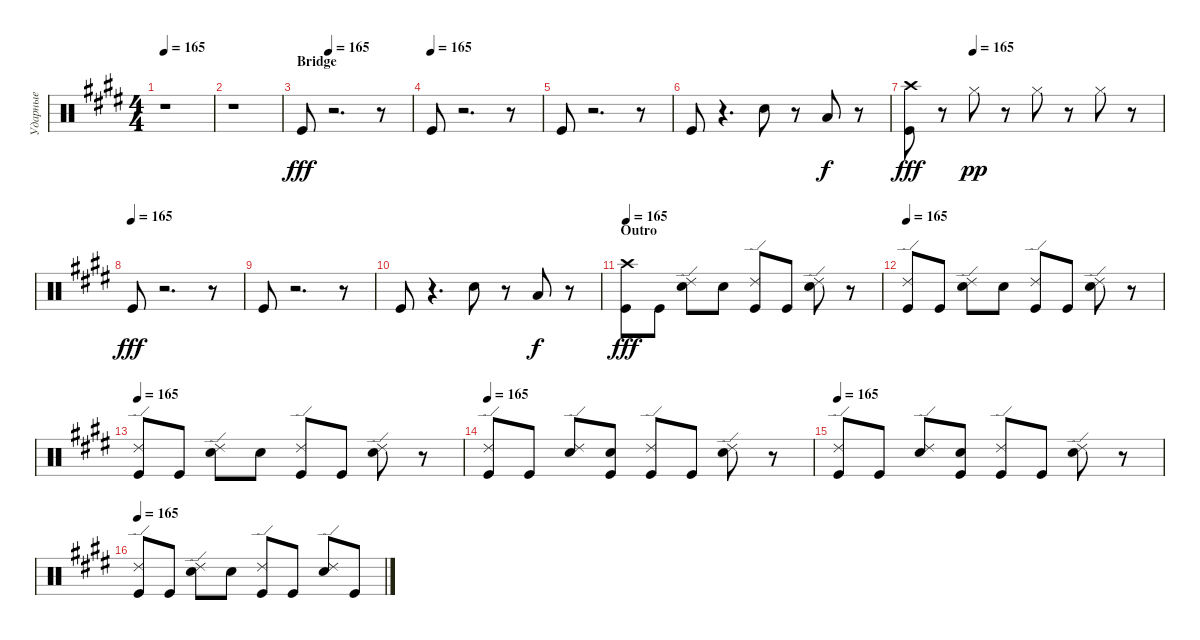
\track ("Ударные" "Ударные") {instrument percussion}
\staff {score}
\articulation defaults
\ts (4 4)
\tempo 165
\clef neutral
\ks e
r.1{dy fff} |
r.1 |
\section ("" "Bridge")
\tempo (165 0.25)
"Kick (hit)".8 r.2{d} r.8 |
\tempo (165)
"Kick (hit)".8 r.2{d} r.8 |
"Kick (hit)".8 r.2{d} r.8 |
"Kick (hit)".8 r.4{d} "Snare (hit) 2".8 r.8 "Low Tom (hit)".8{dy f} r.8 |
\tempo (165 0.25)
("Crash high (hit)" "Kick (hit)").8{dy fff} r.8 "Hi-Hat (closed)".8{dy pp} r.8 "Hi-Hat (closed)".8 r.8 "Hi-Hat (closed)".8 r.8 |
\tempo (165)
"Kick (hit)".8{dy fff} r.2{d} r.8 |
"Kick (hit)".8 r.2{d} r.8 |
"Kick (hit)".8 r.4{d} "Snare (hit) 2".8 r.8 "Low Tom (hit)".8{dy f} r.8 |
\section ("" "Outro")
\tempo 165
("Crash high (hit)" "Kick (hit)").8{dy fff} "Kick (hit)".8 ("Ride (edge) 2" "Snare (hit) 2").8 "Snare (hit) 2".8 ("Ride (edge) 2" "Kick (hit)").8 "Kick (hit)".8 ("Ride (edge) 2" "Snare (hit) 2").8 r.8 |
\tempo 165
("Ride (edge) 2" "Kick (hit)").8 "Kick (hit)".8 ("Ride (edge) 2" "Snare (hit) 2").8 "Snare (hit) 2".8 ("Ride (edge) 2" "Kick (hit)").8 "Kick (hit)".8 ("Ride (edge) 2" "Snare (hit) 2").8 r.8 |
\tempo 165
("Ride (edge) 2" "Kick (hit)").8 "Kick (hit)".8 ("Ride (edge) 2" "Snare (hit) 2").8 "Snare (hit) 2".8 ("Ride (edge) 2" "Kick (hit)").8 "Kick (hit)".8 ("Ride (edge) 2" "Snare (hit) 2").8 r.8 |
\tempo 165
("Ride (edge) 2" "Kick (hit)").8 "Kick (hit)".8 ("Ride (edge) 2" "Snare (hit) 2").8 ("Snare (hit) 2" "Kick (hit)").8 ("Ride (edge) 2" "Kick (hit)").8 "Kick (hit)".8 ("Ride (edge) 2" "Snare (hit) 2").8 r.8 |
\tempo 165
("Ride (edge) 2" "Kick (hit)").8 "Kick (hit)".8 ("Ride (edge) 2" "Snare (hit) 2").8 ("Snare (hit) 2" "Kick (hit)").8 ("Ride (edge) 2" "Kick (hit)").8 "Kick (hit)".8 ("Ride (edge) 2" "Snare (hit) 2").8 r.8 |
\tempo 165
("Ride (edge) 2" "Kick (hit)").8 "Kick (hit)".8 ("Ride (edge) 2" "Snare (hit) 2").8 "Snare (hit) 2".8 ("Ride (edge) 2" "Kick (hit)").8 "Kick (hit)".8 ("Ride (edge) 2" "Snare (hit) 2").8 "Kick (hit)".8
